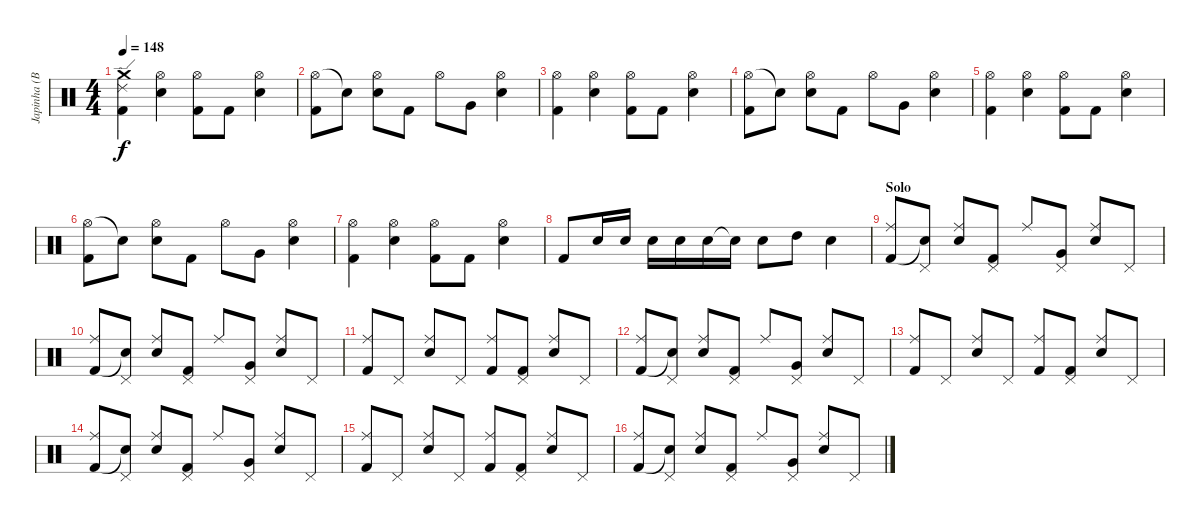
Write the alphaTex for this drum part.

\track ("Japinha (Bateria)" "Japinha (B") {instrument percussion}
\staff {score}
\articulation defaults
\ts (4 4)
\tempo 148
\clef neutral
\ks c
("Crash medium (hit)" "Ride (edge) 2" "Kick (hit) 2").4{dy f} ("Hi-Hat (open)" "Snare (hit) 2").4 ("Hi-Hat (open)" "Kick (hit) 2").8 "Kick (hit) 2".8 ("Hi-Hat (open)" "Snare (hit) 2").4 |
("Hi-Hat (open)" "Kick (hit) 2").8 "Snare (hit)"{t}.8 ("Hi-Hat (open)" "Snare (hit) 2").8 "Kick (hit) 2".8 "Hi-Hat (open)".8 "Very Low Tom (hit)".8 ("Hi-Hat (open)" "Snare (hit) 2").4 |
("Hi-Hat (open)" "Kick (hit) 2").4 ("Hi-Hat (open)" "Snare (hit) 2").4 ("Hi-Hat (open)" "Kick (hit) 2").8 "Kick (hit) 2".8 ("Hi-Hat (open)" "Snare (hit) 2").4 |
("Hi-Hat (open)" "Kick (hit) 2").8 "Snare (hit)"{t}.8 ("Hi-Hat (open)" "Snare (hit) 2").8 "Kick (hit) 2".8 "Hi-Hat (open)".8 "Very Low Tom (hit)".8 ("Hi-Hat (open)" "Snare (hit) 2").4 |
("Hi-Hat (open)" "Kick (hit) 2").4 ("Hi-Hat (open)" "Snare (hit) 2").4 ("Hi-Hat (open)" "Kick (hit) 2").8 "Kick (hit) 2".8 ("Hi-Hat (open)" "Snare (hit) 2").4 |
("Hi-Hat (open)" "Kick (hit) 2").8 "Snare (hit)"{t}.8 ("Hi-Hat (open)" "Snare (hit) 2").8 "Kick (hit) 2".8 "Hi-Hat (open)".8 "Very Low Tom (hit)".8 ("Hi-Hat (open)" "Snare (hit) 2").4 |
("Hi-Hat (open)" "Kick (hit) 2").4 ("Hi-Hat (open)" "Snare (hit) 2").4 ("Hi-Hat (open)" "Kick (hit) 2").8 "Kick (hit) 2".8 ("Hi-Hat (open)" "Snare (hit) 2").4 |
"Kick (hit) 2".8 "Snare (hit) 2".16 "Snare (hit) 2".16 "Snare (hit) 2".16 "Snare (hit) 2".16 "Snare (hit) 2".16 "Electric Snare (hit)"{t}.16 "Snare (hit) 2".8 "High Tom (hit)".8 "Snare (hit) 2".4 |
\section ("" "Solo")
("Ride (middle)" "Kick (hit) 2").8 ("Pedal Hi-Hat (hit)" "Snare (hit)"{t}).8 ("Ride (middle)" "Snare (hit) 2").8 ("Pedal Hi-Hat (hit)" "Kick (hit) 2").8 "Ride (middle)".8 ("Pedal Hi-Hat (hit)" "Very Low Tom (hit)").8 ("Ride (middle)" "Snare (hit) 2").8 "Pedal Hi-Hat (hit)".8 |
("Ride (middle)" "Kick (hit) 2").8 ("Pedal Hi-Hat (hit)" "Snare (hit)"{t}).8 ("Ride (middle)" "Snare (hit) 2").8 ("Pedal Hi-Hat (hit)" "Kick (hit) 2").8 "Ride (middle)".8 ("Pedal Hi-Hat (hit)" "Very Low Tom (hit)").8 ("Ride (middle)" "Snare (hit) 2").8 "Pedal Hi-Hat (hit)".8 |
("Ride (middle)" "Kick (hit) 2").8 "Pedal Hi-Hat (hit)".8 ("Ride (middle)" "Snare (hit) 2").8 "Pedal Hi-Hat (hit)".8 ("Ride (middle)" "Kick (hit) 2").8 ("Pedal Hi-Hat (hit)" "Kick (hit) 2").8 ("Ride (middle)" "Snare (hit) 2").8 "Pedal Hi-Hat (hit)".8 |
("Ride (middle)" "Kick (hit) 2").8 ("Pedal Hi-Hat (hit)" "Snare (hit)"{t}).8 ("Ride (middle)" "Snare (hit) 2").8 ("Pedal Hi-Hat (hit)" "Kick (hit) 2").8 "Ride (middle)".8 ("Pedal Hi-Hat (hit)" "Very Low Tom (hit)").8 ("Ride (middle)" "Snare (hit) 2").8 "Pedal Hi-Hat (hit)".8 |
("Ride (middle)" "Kick (hit) 2").8 "Pedal Hi-Hat (hit)".8 ("Ride (middle)" "Snare (hit) 2").8 "Pedal Hi-Hat (hit)".8 ("Ride (middle)" "Kick (hit) 2").8 ("Pedal Hi-Hat (hit)" "Kick (hit) 2").8 ("Ride (middle)" "Snare (hit) 2").8 "Pedal Hi-Hat (hit)".8 |
("Ride (middle)" "Kick (hit) 2").8 ("Pedal Hi-Hat (hit)" "Snare (hit)"{t}).8 ("Ride (middle)" "Snare (hit) 2").8 ("Pedal Hi-Hat (hit)" "Kick (hit) 2").8 "Ride (middle)".8 ("Pedal Hi-Hat (hit)" "Very Low Tom (hit)").8 ("Ride (middle)" "Snare (hit) 2").8 "Pedal Hi-Hat (hit)".8 |
("Ride (middle)" "Kick (hit) 2").8 "Pedal Hi-Hat (hit)".8 ("Ride (middle)" "Snare (hit) 2").8 "Pedal Hi-Hat (hit)".8 ("Ride (middle)" "Kick (hit) 2").8 ("Pedal Hi-Hat (hit)" "Kick (hit) 2").8 ("Ride (middle)" "Snare (hit) 2").8 "Pedal Hi-Hat (hit)".8 |
("Ride (middle)" "Kick (hit) 2").8 ("Pedal Hi-Hat (hit)" "Snare (hit)"{t}).8 ("Ride (middle)" "Snare (hit) 2").8 ("Pedal Hi-Hat (hit)" "Kick (hit) 2").8 "Ride (middle)".8 ("Pedal Hi-Hat (hit)" "Very Low Tom (hit)").8 ("Ride (middle)" "Snare (hit) 2").8 "Pedal Hi-Hat (hit)".8
